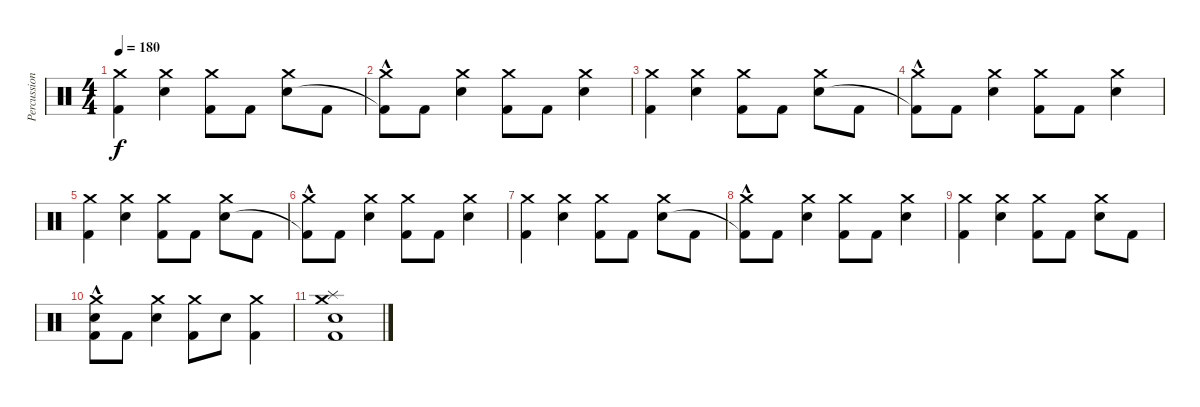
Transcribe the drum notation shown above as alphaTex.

\track ("Percussion" "Percussion") {instrument percussion}
\staff {score}
\articulation defaults
\ts (4 4)
\tempo 180
\clef neutral
\ks c
("Crash medium (hit)" "Kick (hit) 2").4{dy f} ("Crash medium (hit)" "Electric Snare (hit)").4 ("Crash medium (hit)" "Kick (hit) 2").8 "Kick (hit) 2".8 ("Crash medium (hit)" "Electric Snare (hit)").8 "Kick (hit) 2".8 |
("Crash medium (hit)" "Kick (hit) 2"{hac t}).8 "Kick (hit) 2".8 ("Crash medium (hit)" "Electric Snare (hit)").4 ("Crash medium (hit)" "Kick (hit) 2").8 "Kick (hit) 2".8 ("Crash medium (hit)" "Electric Snare (hit)").4 |
("Crash medium (hit)" "Kick (hit) 2").4 ("Crash medium (hit)" "Electric Snare (hit)").4 ("Crash medium (hit)" "Kick (hit) 2").8 "Kick (hit) 2".8 ("Crash medium (hit)" "Electric Snare (hit)").8 "Kick (hit) 2".8 |
("Crash medium (hit)" "Kick (hit) 2"{hac t}).8 "Kick (hit) 2".8 ("Crash medium (hit)" "Electric Snare (hit)").4 ("Crash medium (hit)" "Kick (hit) 2").8 "Kick (hit) 2".8 ("Crash medium (hit)" "Electric Snare (hit)").4 |
("Crash medium (hit)" "Kick (hit) 2").4 ("Crash medium (hit)" "Electric Snare (hit)").4 ("Crash medium (hit)" "Kick (hit) 2").8 "Kick (hit) 2".8 ("Crash medium (hit)" "Electric Snare (hit)").8 "Kick (hit) 2".8 |
("Crash medium (hit)" "Kick (hit) 2"{hac t}).8 "Kick (hit) 2".8 ("Crash medium (hit)" "Electric Snare (hit)").4 ("Crash medium (hit)" "Kick (hit) 2").8 "Kick (hit) 2".8 ("Crash medium (hit)" "Electric Snare (hit)").4 |
("Crash medium (hit)" "Kick (hit) 2").4 ("Crash medium (hit)" "Electric Snare (hit)").4 ("Crash medium (hit)" "Kick (hit) 2").8 "Kick (hit) 2".8 ("Crash medium (hit)" "Electric Snare (hit)").8 "Kick (hit) 2".8 |
("Crash medium (hit)" "Kick (hit) 2"{hac t}).8 "Kick (hit) 2".8 ("Crash medium (hit)" "Electric Snare (hit)").4 ("Crash medium (hit)" "Kick (hit) 2").8 "Kick (hit) 2".8 ("Crash medium (hit)" "Electric Snare (hit)").4 |
("Crash medium (hit)" "Kick (hit) 2").4 ("Crash medium (hit)" "Electric Snare (hit)").4 ("Crash medium (hit)" "Kick (hit) 2").8 "Kick (hit) 2".8 ("Crash medium (hit)" "Electric Snare (hit)").8 "Kick (hit) 2".8 |
("Crash medium (hit)" "Electric Snare (hit)" "Kick (hit) 2"{hac}).8 "Kick (hit) 2".8 ("Crash medium (hit)" "Electric Snare (hit)").4 ("Crash medium (hit)" "Kick (hit) 2").8 "Electric Snare (hit)".8 ("Crash medium (hit)" "Kick (hit) 2").4 |
("Splash (hit)" "Crash medium (hit)" "Electric Snare (hit)" "Kick (hit) 2").1
